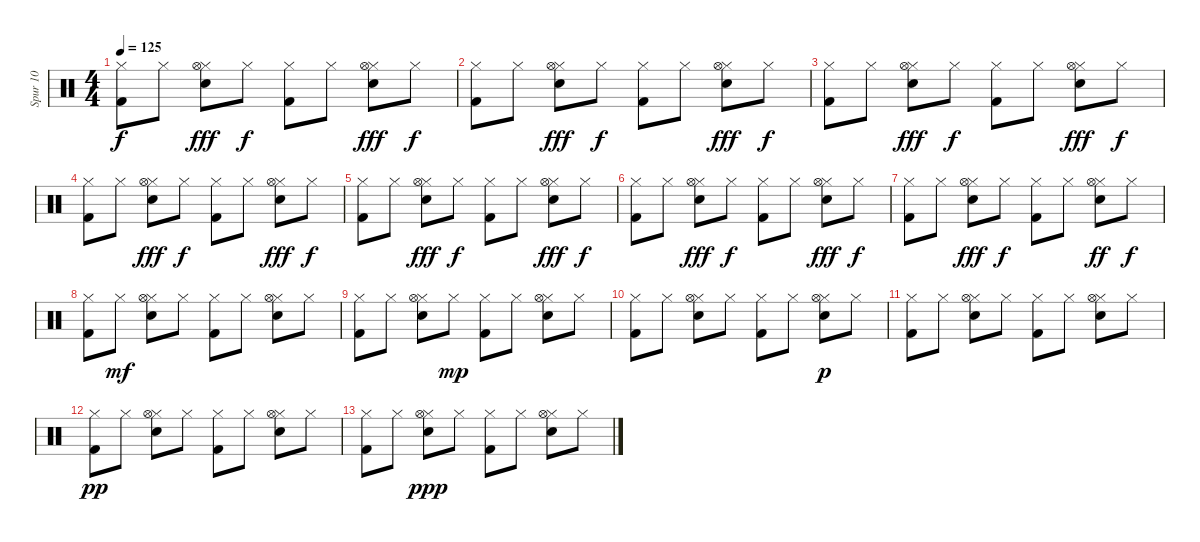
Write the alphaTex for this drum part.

\track ("Spur 10" "Spur 10") {instrument percussion}
\staff {score}
\articulation defaults
\ts (4 4)
\tempo 125
\clef neutral
\ks c
("Kick (hit) 2" "Hi-Hat (closed)").8{dy f} "Hi-Hat (closed)".8 ("Hi-Hat (closed)" "Snare (hit) 2" "Hi-Hat (open)").8{dy fff} "Hi-Hat (closed)".8{dy f} ("Hi-Hat (closed)" "Kick (hit) 2").8 "Hi-Hat (closed)".8 ("Hi-Hat (closed)" "Snare (hit) 2" "Hi-Hat (open)").8{dy fff} "Hi-Hat (closed)".8{dy f} |
("Kick (hit) 2" "Hi-Hat (closed)").8 "Hi-Hat (closed)".8 ("Hi-Hat (closed)" "Snare (hit) 2" "Hi-Hat (open)").8{dy fff} "Hi-Hat (closed)".8{dy f} ("Hi-Hat (closed)" "Kick (hit) 2").8 "Hi-Hat (closed)".8 ("Hi-Hat (closed)" "Snare (hit) 2" "Hi-Hat (open)").8{dy fff} "Hi-Hat (closed)".8{dy f} |
("Kick (hit) 2" "Hi-Hat (closed)").8 "Hi-Hat (closed)".8 ("Hi-Hat (closed)" "Snare (hit) 2" "Hi-Hat (open)").8{dy fff} "Hi-Hat (closed)".8{dy f} ("Hi-Hat (closed)" "Kick (hit) 2").8 "Hi-Hat (closed)".8 ("Hi-Hat (closed)" "Snare (hit) 2" "Hi-Hat (open)").8{dy fff} "Hi-Hat (closed)".8{dy f} |
("Kick (hit) 2" "Hi-Hat (closed)").8 "Hi-Hat (closed)".8 ("Hi-Hat (closed)" "Snare (hit) 2" "Hi-Hat (open)").8{dy fff} "Hi-Hat (closed)".8{dy f} ("Hi-Hat (closed)" "Kick (hit) 2").8 "Hi-Hat (closed)".8 ("Hi-Hat (closed)" "Snare (hit) 2" "Hi-Hat (open)").8{dy fff} "Hi-Hat (closed)".8{dy f} |
("Kick (hit) 2" "Hi-Hat (closed)").8 "Hi-Hat (closed)".8 ("Hi-Hat (closed)" "Snare (hit) 2" "Hi-Hat (open)").8{dy fff} "Hi-Hat (closed)".8{dy f} ("Hi-Hat (closed)" "Kick (hit) 2").8 "Hi-Hat (closed)".8 ("Hi-Hat (closed)" "Snare (hit) 2" "Hi-Hat (open)").8{dy fff} "Hi-Hat (closed)".8{dy f} |
("Kick (hit) 2" "Hi-Hat (closed)").8 "Hi-Hat (closed)".8 ("Hi-Hat (closed)" "Snare (hit) 2" "Hi-Hat (open)").8{dy fff} "Hi-Hat (closed)".8{dy f} ("Hi-Hat (closed)" "Kick (hit) 2").8 "Hi-Hat (closed)".8 ("Hi-Hat (closed)" "Snare (hit) 2" "Hi-Hat (open)").8{dy fff} "Hi-Hat (closed)".8{dy f} |
("Kick (hit) 2" "Hi-Hat (closed)").8 "Hi-Hat (closed)".8 ("Hi-Hat (closed)" "Snare (hit) 2" "Hi-Hat (open)").8{dy fff} "Hi-Hat (closed)".8{dy f} ("Hi-Hat (closed)" "Kick (hit) 2").8 "Hi-Hat (closed)".8 ("Hi-Hat (closed)" "Snare (hit) 2" "Hi-Hat (open)").8{dy ff} "Hi-Hat (closed)".8{dy f} |
("Kick (hit) 2" "Hi-Hat (closed)").8 "Hi-Hat (closed)".8{dy mf} ("Hi-Hat (closed)" "Snare (hit) 2" "Hi-Hat (open)").8 "Hi-Hat (closed)".8 ("Hi-Hat (closed)" "Kick (hit) 2").8 "Hi-Hat (closed)".8 ("Hi-Hat (closed)" "Snare (hit) 2" "Hi-Hat (open)").8 "Hi-Hat (closed)".8 |
("Kick (hit) 2" "Hi-Hat (closed)").8 "Hi-Hat (closed)".8 ("Hi-Hat (closed)" "Snare (hit) 2" "Hi-Hat (open)").8 "Hi-Hat (closed)".8{dy mp} ("Hi-Hat (closed)" "Kick (hit) 2").8 "Hi-Hat (closed)".8 ("Hi-Hat (closed)" "Snare (hit) 2" "Hi-Hat (open)").8 "Hi-Hat (closed)".8 |
("Kick (hit) 2" "Hi-Hat (closed)").8 "Hi-Hat (closed)".8 ("Hi-Hat (closed)" "Snare (hit) 2" "Hi-Hat (open)").8 "Hi-Hat (closed)".8 ("Hi-Hat (closed)" "Kick (hit) 2").8 "Hi-Hat (closed)".8 ("Hi-Hat (closed)" "Snare (hit) 2" "Hi-Hat (open)").8{dy p} "Hi-Hat (closed)".8 |
("Kick (hit) 2" "Hi-Hat (closed)").8 "Hi-Hat (closed)".8 ("Hi-Hat (closed)" "Snare (hit) 2" "Hi-Hat (open)").8 "Hi-Hat (closed)".8 ("Hi-Hat (closed)" "Kick (hit) 2").8 "Hi-Hat (closed)".8 ("Hi-Hat (closed)" "Snare (hit) 2" "Hi-Hat (open)").8 "Hi-Hat (closed)".8 |
("Kick (hit) 2" "Hi-Hat (closed)").8{dy pp} "Hi-Hat (closed)".8 ("Hi-Hat (closed)" "Snare (hit) 2" "Hi-Hat (open)").8 "Hi-Hat (closed)".8 ("Hi-Hat (closed)" "Kick (hit) 2").8 "Hi-Hat (closed)".8 ("Hi-Hat (closed)" "Snare (hit) 2" "Hi-Hat (open)").8 "Hi-Hat (closed)".8 |
("Kick (hit) 2" "Hi-Hat (closed)").8 "Hi-Hat (closed)".8 ("Hi-Hat (closed)" "Snare (hit) 2" "Hi-Hat (open)").8{dy ppp} "Hi-Hat (closed)".8 ("Hi-Hat (closed)" "Kick (hit) 2").8 "Hi-Hat (closed)".8 ("Hi-Hat (closed)" "Snare (hit) 2" "Hi-Hat (open)").8 "Hi-Hat (closed)".8
